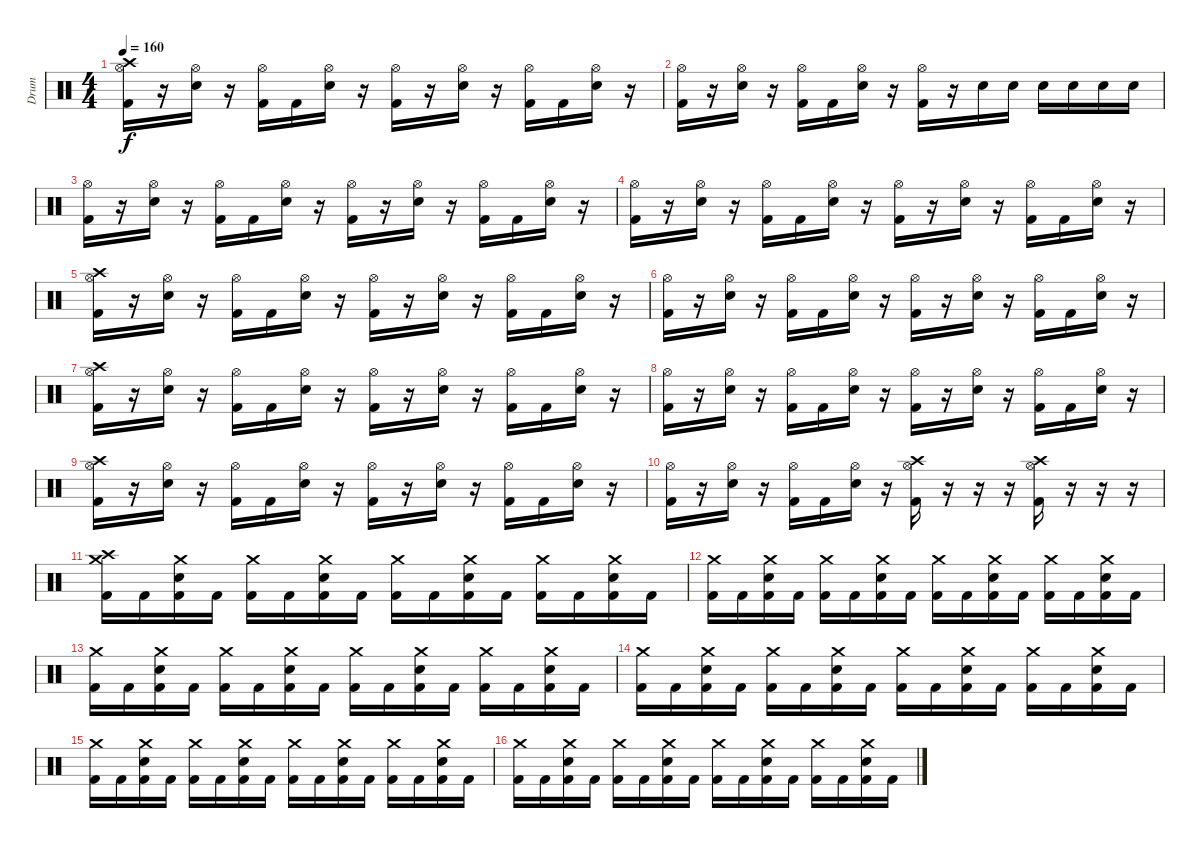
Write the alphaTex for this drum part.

\track ("Drum" "Drum") {instrument percussion}
\staff {score}
\articulation defaults
\ts (4 4)
\tempo 160
\clef neutral
\ks c
("Crash high (hit)" "Hi-Hat (open)" "Kick (hit) 2").16{dy f} r.16 ("Hi-Hat (open)" "Electric Snare (hit)").16 r.16 ("Hi-Hat (open)" "Kick (hit) 2").16 "Kick (hit) 2".16 ("Hi-Hat (open)" "Electric Snare (hit)").16 r.16 ("Hi-Hat (open)" "Kick (hit) 2").16 r.16 ("Hi-Hat (open)" "Electric Snare (hit)").16 r.16 ("Hi-Hat (open)" "Kick (hit) 2").16 "Kick (hit) 2".16 ("Hi-Hat (open)" "Electric Snare (hit)").16 r.16 |
("Hi-Hat (open)" "Kick (hit) 2").16 r.16 ("Hi-Hat (open)" "Electric Snare (hit)").16 r.16 ("Hi-Hat (open)" "Kick (hit) 2").16 "Kick (hit) 2".16 ("Hi-Hat (open)" "Electric Snare (hit)").16 r.16 ("Hi-Hat (open)" "Kick (hit) 2").16 r.16 "Electric Snare (hit)".16 "Electric Snare (hit)".16 "Electric Snare (hit)".16 "Electric Snare (hit)".16 "Electric Snare (hit)".16 "Electric Snare (hit)".16 |
("Hi-Hat (open)" "Kick (hit) 2").16 r.16 ("Hi-Hat (open)" "Electric Snare (hit)").16 r.16 ("Hi-Hat (open)" "Kick (hit) 2").16 "Kick (hit) 2".16 ("Hi-Hat (open)" "Electric Snare (hit)").16 r.16 ("Hi-Hat (open)" "Kick (hit) 2").16 r.16 ("Hi-Hat (open)" "Electric Snare (hit)").16 r.16 ("Hi-Hat (open)" "Kick (hit) 2").16 "Kick (hit) 2".16 ("Hi-Hat (open)" "Electric Snare (hit)").16 r.16 |
("Hi-Hat (open)" "Kick (hit) 2").16 r.16 ("Hi-Hat (open)" "Electric Snare (hit)").16 r.16 ("Hi-Hat (open)" "Kick (hit) 2").16 "Kick (hit) 2".16 ("Hi-Hat (open)" "Electric Snare (hit)").16 r.16 ("Hi-Hat (open)" "Kick (hit) 2").16 r.16 ("Hi-Hat (open)" "Electric Snare (hit)").16 r.16 ("Hi-Hat (open)" "Kick (hit) 2").16 "Kick (hit) 2".16 ("Hi-Hat (open)" "Electric Snare (hit)").16 r.16 |
("Crash high (hit)" "Hi-Hat (open)" "Kick (hit) 2").16 r.16 ("Hi-Hat (open)" "Electric Snare (hit)").16 r.16 ("Hi-Hat (open)" "Kick (hit) 2").16 "Kick (hit) 2".16 ("Hi-Hat (open)" "Electric Snare (hit)").16 r.16 ("Hi-Hat (open)" "Kick (hit) 2").16 r.16 ("Hi-Hat (open)" "Electric Snare (hit)").16 r.16 ("Hi-Hat (open)" "Kick (hit) 2").16 "Kick (hit) 2".16 ("Hi-Hat (open)" "Electric Snare (hit)").16 r.16 |
("Hi-Hat (open)" "Kick (hit) 2").16 r.16 ("Hi-Hat (open)" "Electric Snare (hit)").16 r.16 ("Hi-Hat (open)" "Kick (hit) 2").16 "Kick (hit) 2".16 ("Hi-Hat (open)" "Electric Snare (hit)").16 r.16 ("Hi-Hat (open)" "Kick (hit) 2").16 r.16 ("Hi-Hat (open)" "Electric Snare (hit)").16 r.16 ("Hi-Hat (open)" "Kick (hit) 2").16 "Kick (hit) 2".16 ("Hi-Hat (open)" "Electric Snare (hit)").16 r.16 |
("Crash high (hit)" "Hi-Hat (open)" "Kick (hit) 2").16 r.16 ("Hi-Hat (open)" "Electric Snare (hit)").16 r.16 ("Hi-Hat (open)" "Kick (hit) 2").16 "Kick (hit) 2".16 ("Hi-Hat (open)" "Electric Snare (hit)").16 r.16 ("Hi-Hat (open)" "Kick (hit) 2").16 r.16 ("Hi-Hat (open)" "Electric Snare (hit)").16 r.16 ("Hi-Hat (open)" "Kick (hit) 2").16 "Kick (hit) 2".16 ("Hi-Hat (open)" "Electric Snare (hit)").16 r.16 |
("Hi-Hat (open)" "Kick (hit) 2").16 r.16 ("Hi-Hat (open)" "Electric Snare (hit)").16 r.16 ("Hi-Hat (open)" "Kick (hit) 2").16 "Kick (hit) 2".16 ("Hi-Hat (open)" "Electric Snare (hit)").16 r.16 ("Hi-Hat (open)" "Kick (hit) 2").16 r.16 ("Hi-Hat (open)" "Electric Snare (hit)").16 r.16 ("Hi-Hat (open)" "Kick (hit) 2").16 "Kick (hit) 2".16 ("Hi-Hat (open)" "Electric Snare (hit)").16 r.16 |
("Crash high (hit)" "Hi-Hat (open)" "Kick (hit) 2").16 r.16 ("Hi-Hat (open)" "Electric Snare (hit)").16 r.16 ("Hi-Hat (open)" "Kick (hit) 2").16 "Kick (hit) 2".16 ("Hi-Hat (open)" "Electric Snare (hit)").16 r.16 ("Hi-Hat (open)" "Kick (hit) 2").16 r.16 ("Hi-Hat (open)" "Electric Snare (hit)").16 r.16 ("Hi-Hat (open)" "Kick (hit) 2").16 "Kick (hit) 2".16 ("Hi-Hat (open)" "Electric Snare (hit)").16 r.16 |
("Hi-Hat (open)" "Kick (hit) 2").16 r.16 ("Hi-Hat (open)" "Electric Snare (hit)").16 r.16 ("Hi-Hat (open)" "Kick (hit) 2").16 "Kick (hit) 2".16 ("Hi-Hat (open)" "Electric Snare (hit)").16 r.16 ("Crash high (hit)" "Hi-Hat (open)" "Kick (hit) 2").16 r.16 r.16 r.16 ("Crash high (hit)" "Hi-Hat (open)" "Kick (hit) 2").16 r.16 r.16 r.16 |
("Crash high (hit)" "Crash medium (hit)" "Kick (hit) 2").16 "Kick (hit) 2".16 ("Crash medium (hit)" "Kick (hit) 2" "Electric Snare (hit)").16 "Kick (hit) 2".16 ("Crash medium (hit)" "Kick (hit) 2").16 "Kick (hit) 2".16 ("Crash medium (hit)" "Kick (hit) 2" "Electric Snare (hit)").16 "Kick (hit) 2".16 ("Crash medium (hit)" "Kick (hit) 2").16 "Kick (hit) 2".16 ("Crash medium (hit)" "Kick (hit) 2" "Electric Snare (hit)").16 "Kick (hit) 2".16 ("Crash medium (hit)" "Kick (hit) 2").16 "Kick (hit) 2".16 ("Crash medium (hit)" "Kick (hit) 2" "Electric Snare (hit)").16 "Kick (hit) 2".16 |
("Crash medium (hit)" "Kick (hit) 2").16 "Kick (hit) 2".16 ("Crash medium (hit)" "Kick (hit) 2" "Electric Snare (hit)").16 "Kick (hit) 2".16 ("Crash medium (hit)" "Kick (hit) 2").16 "Kick (hit) 2".16 ("Crash medium (hit)" "Kick (hit) 2" "Electric Snare (hit)").16 "Kick (hit) 2".16 ("Crash medium (hit)" "Kick (hit) 2").16 "Kick (hit) 2".16 ("Crash medium (hit)" "Kick (hit) 2" "Electric Snare (hit)").16 "Kick (hit) 2".16 ("Crash medium (hit)" "Kick (hit) 2").16 "Kick (hit) 2".16 ("Crash medium (hit)" "Kick (hit) 2" "Electric Snare (hit)").16 "Kick (hit) 2".16 |
("Crash medium (hit)" "Kick (hit) 2").16 "Kick (hit) 2".16 ("Crash medium (hit)" "Kick (hit) 2" "Electric Snare (hit)").16 "Kick (hit) 2".16 ("Crash medium (hit)" "Kick (hit) 2").16 "Kick (hit) 2".16 ("Crash medium (hit)" "Kick (hit) 2" "Electric Snare (hit)").16 "Kick (hit) 2".16 ("Crash medium (hit)" "Kick (hit) 2").16 "Kick (hit) 2".16 ("Crash medium (hit)" "Kick (hit) 2" "Electric Snare (hit)").16 "Kick (hit) 2".16 ("Crash medium (hit)" "Kick (hit) 2").16 "Kick (hit) 2".16 ("Crash medium (hit)" "Kick (hit) 2" "Electric Snare (hit)").16 "Kick (hit) 2".16 |
("Crash medium (hit)" "Kick (hit) 2").16 "Kick (hit) 2".16 ("Crash medium (hit)" "Kick (hit) 2" "Electric Snare (hit)").16 "Kick (hit) 2".16 ("Crash medium (hit)" "Kick (hit) 2").16 "Kick (hit) 2".16 ("Crash medium (hit)" "Kick (hit) 2" "Electric Snare (hit)").16 "Kick (hit) 2".16 ("Crash medium (hit)" "Kick (hit) 2").16 "Kick (hit) 2".16 ("Crash medium (hit)" "Kick (hit) 2" "Electric Snare (hit)").16 "Kick (hit) 2".16 ("Crash medium (hit)" "Kick (hit) 2").16 "Kick (hit) 2".16 ("Crash medium (hit)" "Kick (hit) 2" "Electric Snare (hit)").16 "Kick (hit) 2".16 |
("Crash medium (hit)" "Kick (hit) 2").16 "Kick (hit) 2".16 ("Crash medium (hit)" "Kick (hit) 2" "Electric Snare (hit)").16 "Kick (hit) 2".16 ("Crash medium (hit)" "Kick (hit) 2").16 "Kick (hit) 2".16 ("Crash medium (hit)" "Kick (hit) 2" "Electric Snare (hit)").16 "Kick (hit) 2".16 ("Crash medium (hit)" "Kick (hit) 2").16 "Kick (hit) 2".16 ("Crash medium (hit)" "Kick (hit) 2" "Electric Snare (hit)").16 "Kick (hit) 2".16 ("Crash medium (hit)" "Kick (hit) 2").16 "Kick (hit) 2".16 ("Crash medium (hit)" "Kick (hit) 2" "Electric Snare (hit)").16 "Kick (hit) 2".16 |
("Crash medium (hit)" "Kick (hit) 2").16 "Kick (hit) 2".16 ("Crash medium (hit)" "Kick (hit) 2" "Electric Snare (hit)").16 "Kick (hit) 2".16 ("Crash medium (hit)" "Kick (hit) 2").16 "Kick (hit) 2".16 ("Crash medium (hit)" "Kick (hit) 2" "Electric Snare (hit)").16 "Kick (hit) 2".16 ("Crash medium (hit)" "Kick (hit) 2").16 "Kick (hit) 2".16 ("Crash medium (hit)" "Kick (hit) 2" "Electric Snare (hit)").16 "Kick (hit) 2".16 ("Crash medium (hit)" "Kick (hit) 2").16 "Kick (hit) 2".16 ("Crash medium (hit)" "Kick (hit) 2" "Electric Snare (hit)").16 "Kick (hit) 2".16
